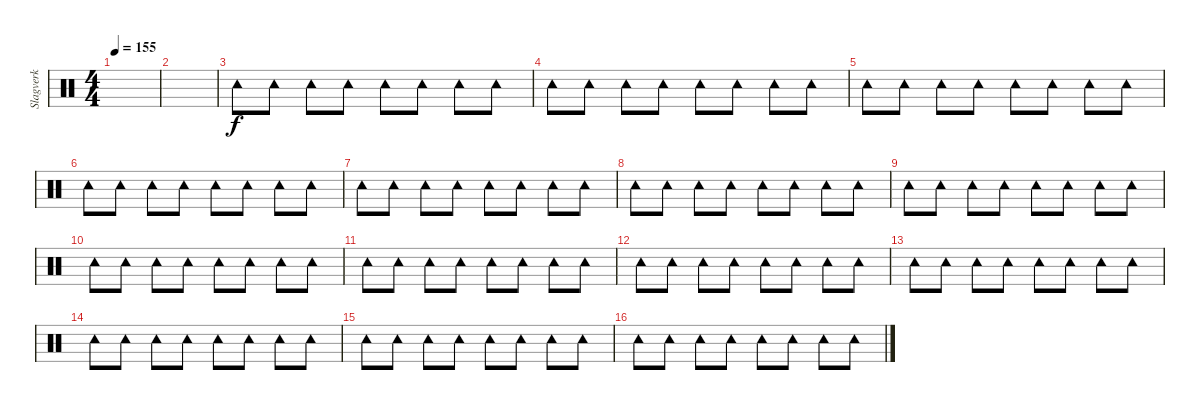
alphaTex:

\track ("Slagverk" "Slagverk") {instrument percussion}
\staff {score}
\articulation defaults
\ts (4 4)
\tempo 155
\clef neutral
\ks c
|
|
"Tambourine (hit)".8 "Tambourine (hit)".8 "Tambourine (hit)".8 "Tambourine (hit)".8 "Tambourine (hit)".8 "Tambourine (hit)".8 "Tambourine (hit)".8 "Tambourine (hit)".8 |
"Tambourine (hit)".8 "Tambourine (hit)".8 "Tambourine (hit)".8 "Tambourine (hit)".8 "Tambourine (hit)".8 "Tambourine (hit)".8 "Tambourine (hit)".8 "Tambourine (hit)".8 |
"Tambourine (hit)".8 "Tambourine (hit)".8 "Tambourine (hit)".8 "Tambourine (hit)".8 "Tambourine (hit)".8 "Tambourine (hit)".8 "Tambourine (hit)".8 "Tambourine (hit)".8 |
"Tambourine (hit)".8 "Tambourine (hit)".8 "Tambourine (hit)".8 "Tambourine (hit)".8 "Tambourine (hit)".8 "Tambourine (hit)".8 "Tambourine (hit)".8 "Tambourine (hit)".8 |
"Tambourine (hit)".8 "Tambourine (hit)".8 "Tambourine (hit)".8 "Tambourine (hit)".8 "Tambourine (hit)".8 "Tambourine (hit)".8 "Tambourine (hit)".8 "Tambourine (hit)".8 |
"Tambourine (hit)".8 "Tambourine (hit)".8 "Tambourine (hit)".8 "Tambourine (hit)".8 "Tambourine (hit)".8 "Tambourine (hit)".8 "Tambourine (hit)".8 "Tambourine (hit)".8 |
"Tambourine (hit)".8 "Tambourine (hit)".8 "Tambourine (hit)".8 "Tambourine (hit)".8 "Tambourine (hit)".8 "Tambourine (hit)".8 "Tambourine (hit)".8 "Tambourine (hit)".8 |
"Tambourine (hit)".8 "Tambourine (hit)".8 "Tambourine (hit)".8 "Tambourine (hit)".8 "Tambourine (hit)".8 "Tambourine (hit)".8 "Tambourine (hit)".8 "Tambourine (hit)".8 |
"Tambourine (hit)".8 "Tambourine (hit)".8 "Tambourine (hit)".8 "Tambourine (hit)".8 "Tambourine (hit)".8 "Tambourine (hit)".8 "Tambourine (hit)".8 "Tambourine (hit)".8 |
"Tambourine (hit)".8 "Tambourine (hit)".8 "Tambourine (hit)".8 "Tambourine (hit)".8 "Tambourine (hit)".8 "Tambourine (hit)".8 "Tambourine (hit)".8 "Tambourine (hit)".8 |
"Tambourine (hit)".8 "Tambourine (hit)".8 "Tambourine (hit)".8 "Tambourine (hit)".8 "Tambourine (hit)".8 "Tambourine (hit)".8 "Tambourine (hit)".8 "Tambourine (hit)".8 |
"Tambourine (hit)".8 "Tambourine (hit)".8 "Tambourine (hit)".8 "Tambourine (hit)".8 "Tambourine (hit)".8 "Tambourine (hit)".8 "Tambourine (hit)".8 "Tambourine (hit)".8 |
"Tambourine (hit)".8 "Tambourine (hit)".8 "Tambourine (hit)".8 "Tambourine (hit)".8 "Tambourine (hit)".8 "Tambourine (hit)".8 "Tambourine (hit)".8 "Tambourine (hit)".8 |
"Tambourine (hit)".8 "Tambourine (hit)".8 "Tambourine (hit)".8 "Tambourine (hit)".8 "Tambourine (hit)".8 "Tambourine (hit)".8 "Tambourine (hit)".8 "Tambourine (hit)".8
